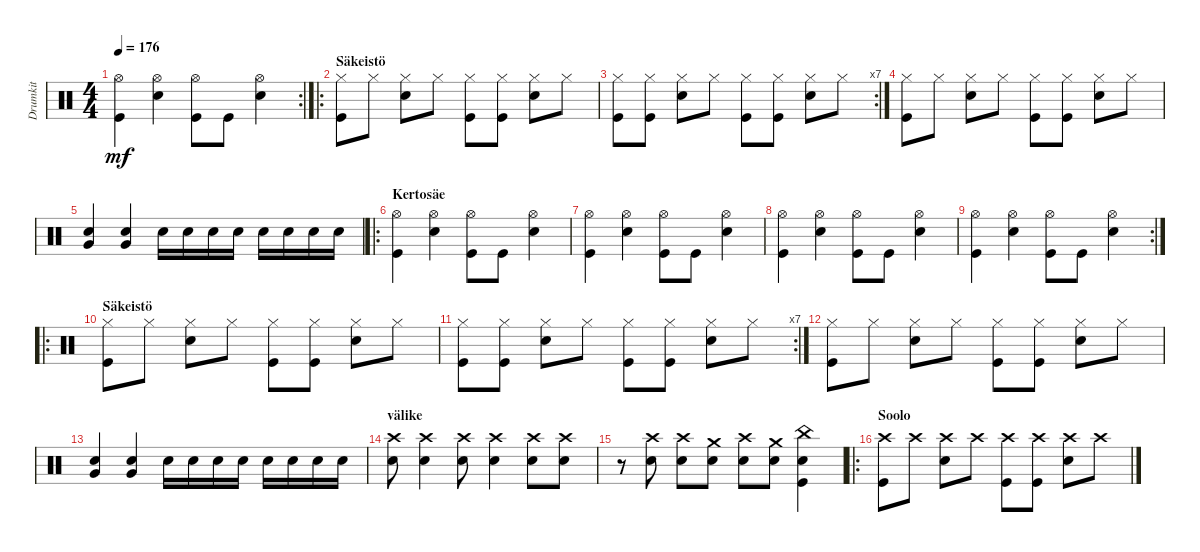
\track ("Drumkit" "Drumkit") {instrument percussion}
\staff {score}
\articulation defaults
\rc 2
\ts (4 4)
\tempo 176
\clef neutral
\ks c
("Kick (hit)" "Hi-Hat (open)").4{dy mf} ("Hi-Hat (open)" "Snare (hit) 2").4 ("Kick (hit)" "Hi-Hat (open)").8 "Kick (hit)".8 ("Hi-Hat (open)" "Snare (hit) 2").4 |
\ro
\section ("" "Säkeistö")
("Hi-Hat (closed)" "Kick (hit)").8 "Hi-Hat (closed)".8 ("Hi-Hat (closed)" "Snare (hit) 2").8 "Hi-Hat (closed)".8 ("Hi-Hat (closed)" "Kick (hit)").8 ("Hi-Hat (closed)" "Kick (hit)").8 ("Hi-Hat (closed)" "Snare (hit) 2").8 "Hi-Hat (closed)".8 |
\rc 7
("Hi-Hat (closed)" "Kick (hit)").8 ("Hi-Hat (closed)" "Kick (hit)").8 ("Hi-Hat (closed)" "Snare (hit) 2").8 "Hi-Hat (closed)".8 ("Hi-Hat (closed)" "Kick (hit)").8 ("Hi-Hat (closed)" "Kick (hit)").8 ("Hi-Hat (closed)" "Snare (hit) 2").8 "Hi-Hat (closed)".8 |
("Hi-Hat (closed)" "Kick (hit)").8 "Hi-Hat (closed)".8 ("Hi-Hat (closed)" "Snare (hit) 2").8 "Hi-Hat (closed)".8 ("Hi-Hat (closed)" "Kick (hit)").8 ("Hi-Hat (closed)" "Kick (hit)").8 ("Hi-Hat (closed)" "Snare (hit) 2").8 "Hi-Hat (closed)".8 |
("Snare (hit) 2" "Very Low Tom (hit)").4 ("Very Low Tom (hit)" "Snare (hit) 2").4 "Snare (hit) 2".16 "Snare (hit) 2".16 "Snare (hit) 2".16 "Snare (hit) 2".16 "Snare (hit) 2".16 "Snare (hit) 2".16 "Snare (hit) 2".16 "Snare (hit) 2".16 |
\ro
\section ("" "Kertosäe")
("Kick (hit)" "Hi-Hat (open)").4 ("Hi-Hat (open)" "Snare (hit) 2").4 ("Kick (hit)" "Hi-Hat (open)").8 "Kick (hit)".8 ("Hi-Hat (open)" "Snare (hit) 2").4 |
("Kick (hit)" "Hi-Hat (open)").4 ("Hi-Hat (open)" "Snare (hit) 2").4 ("Kick (hit)" "Hi-Hat (open)").8 "Kick (hit)".8 ("Hi-Hat (open)" "Snare (hit) 2").4 |
("Kick (hit)" "Hi-Hat (open)").4 ("Hi-Hat (open)" "Snare (hit) 2").4 ("Kick (hit)" "Hi-Hat (open)").8 "Kick (hit)".8 ("Hi-Hat (open)" "Snare (hit) 2").4 |
\rc 2
("Kick (hit)" "Hi-Hat (open)").4 ("Hi-Hat (open)" "Snare (hit) 2").4 ("Kick (hit)" "Hi-Hat (open)").8 "Kick (hit)".8 ("Hi-Hat (open)" "Snare (hit) 2").4 |
\ro
\section ("" "Säkeistö")
("Hi-Hat (closed)" "Kick (hit)").8 "Hi-Hat (closed)".8 ("Hi-Hat (closed)" "Snare (hit) 2").8 "Hi-Hat (closed)".8 ("Hi-Hat (closed)" "Kick (hit)").8 ("Hi-Hat (closed)" "Kick (hit)").8 ("Hi-Hat (closed)" "Snare (hit) 2").8 "Hi-Hat (closed)".8 |
\rc 7
("Hi-Hat (closed)" "Kick (hit)").8 ("Hi-Hat (closed)" "Kick (hit)").8 ("Hi-Hat (closed)" "Snare (hit) 2").8 "Hi-Hat (closed)".8 ("Hi-Hat (closed)" "Kick (hit)").8 ("Hi-Hat (closed)" "Kick (hit)").8 ("Hi-Hat (closed)" "Snare (hit) 2").8 "Hi-Hat (closed)".8 |
("Hi-Hat (closed)" "Kick (hit)").8 "Hi-Hat (closed)".8 ("Hi-Hat (closed)" "Snare (hit) 2").8 "Hi-Hat (closed)".8 ("Hi-Hat (closed)" "Kick (hit)").8 ("Hi-Hat (closed)" "Kick (hit)").8 ("Hi-Hat (closed)" "Snare (hit) 2").8 "Hi-Hat (closed)".8 |
("Snare (hit) 2" "Very Low Tom (hit)").4 ("Very Low Tom (hit)" "Snare (hit) 2").4 "Snare (hit) 2".16 "Snare (hit) 2".16 "Snare (hit) 2".16 "Snare (hit) 2".16 "Snare (hit) 2".16 "Snare (hit) 2".16 "Snare (hit) 2".16 "Snare (hit) 2".16 |
\section ("" "välike")
("Crash high (hit)" "Snare (hit) 2").8 ("Crash high (hit)" "Snare (hit) 2").4 ("Crash high (hit)" "Snare (hit) 2").8 ("Crash high (hit)" "Snare (hit) 2").4 ("Crash high (hit)" "Snare (hit) 2").8 ("Crash high (hit)" "Snare (hit) 2").8 |
r.8 ("Crash high (hit)" "Snare (hit) 2").8 ("Crash high (hit)" "Snare (hit) 2").8 ("Crash medium (hit)" "Snare (hit) 2").8 ("Crash high (hit)" "Snare (hit) 2").8 ("Crash medium (hit)" "Snare (hit) 2").8 ("China (hit)" "Snare (hit) 2" "Kick (hit)").4 |
\ro
\section ("" "Soolo")
("Kick (hit)" "Crash high (hit)").8 "Crash high (hit)".8 ("Snare (hit) 2" "Crash high (hit)").8 "Crash high (hit)".8 ("Kick (hit)" "Crash high (hit)").8 ("Kick (hit)" "Crash high (hit)").8 ("Snare (hit) 2" "Crash high (hit)").8 "Crash high (hit)".8
